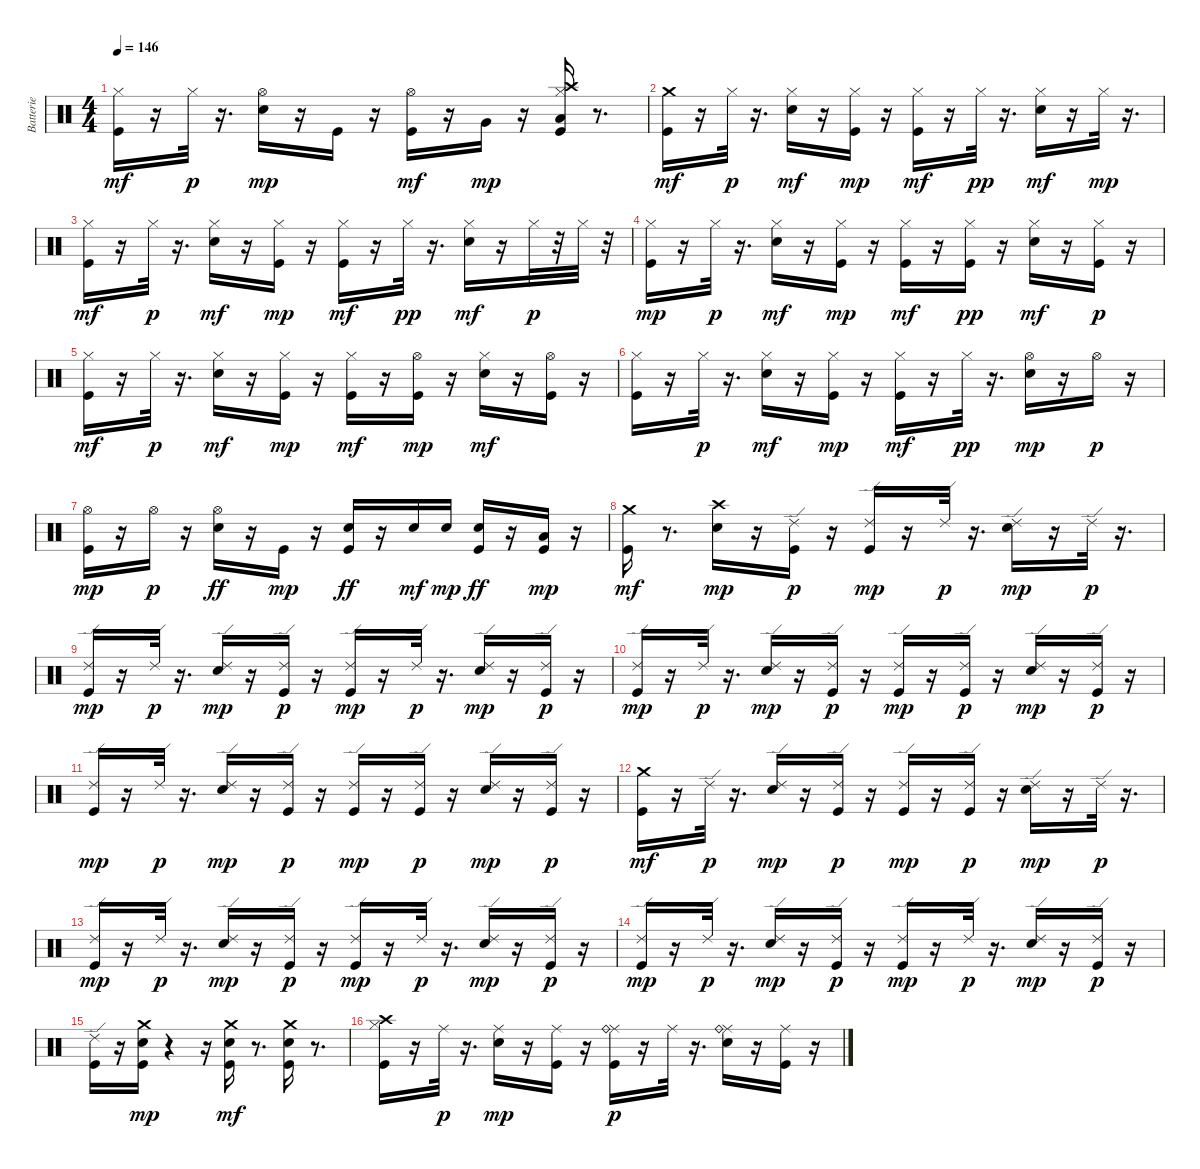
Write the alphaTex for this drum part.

\track ("Batterie" "Batterie") {instrument percussion}
\staff {score}
\articulation defaults
\ts (4 4)
\tempo 146
\clef neutral
\ks c
("Kick (hit)" "Hi-Hat (closed)").16{dy mf} r.16 "Hi-Hat (closed)".32{dy p} r.16{d} ("Electric Snare (hit)" "Hi-Hat (open)").16{dy mp} r.16 "Kick (hit)".16 r.16 ("Kick (hit)" "Hi-Hat (open)").16{dy mf} r.16 "Very Low Tom (hit)".16{dy mp} r.16 ("Kick (hit)" "Hi-Hat (closed)" "Crash high (hit)" "Low Tom (hit)").16 r.8{d} |
("Kick (hit)" "Crash medium (hit)").16{dy mf} r.16 "Hi-Hat (closed)".32{dy p} r.16{d} ("Electric Snare (hit)" "Hi-Hat (closed)").16{dy mf} r.16 ("Kick (hit)" "Hi-Hat (closed)").16{dy mp} r.16 ("Kick (hit)" "Hi-Hat (closed)").16{dy mf} r.16 "Hi-Hat (closed)".32{dy pp} r.16{d} ("Electric Snare (hit)" "Hi-Hat (closed)").16{dy mf} r.16 "Hi-Hat (closed)".32{dy mp} r.16{d} |
("Kick (hit)" "Hi-Hat (closed)").16{dy mf} r.16 "Hi-Hat (closed)".32{dy p} r.16{d} ("Electric Snare (hit)" "Hi-Hat (closed)").16{dy mf} r.16 ("Kick (hit)" "Hi-Hat (closed)").16{dy mp} r.16 ("Kick (hit)" "Hi-Hat (closed)").16{dy mf} r.16 "Hi-Hat (closed)".32{dy pp} r.16{d} ("Electric Snare (hit)" "Hi-Hat (closed)").16{dy mf} r.16 "Hi-Hat (closed)".32{dy p} r.32 "Hi-Hat (closed)".32 r.32 |
("Kick (hit)" "Hi-Hat (closed)").16{dy mp} r.16 "Hi-Hat (closed)".32{dy p} r.16{d} ("Electric Snare (hit)" "Hi-Hat (closed)").16{dy mf} r.16 ("Kick (hit)" "Hi-Hat (closed)").16{dy mp} r.16 ("Kick (hit)" "Hi-Hat (closed)").16{dy mf} r.16 ("Kick (hit)" "Hi-Hat (closed)").16{dy pp} r.16 ("Electric Snare (hit)" "Hi-Hat (closed)").16{dy mf} r.16 ("Kick (hit)" "Hi-Hat (closed)").16{dy p} r.16 |
("Kick (hit)" "Hi-Hat (closed)").16{dy mf} r.16 "Hi-Hat (closed)".32{dy p} r.16{d} ("Electric Snare (hit)" "Hi-Hat (closed)").16{dy mf} r.16 ("Kick (hit)" "Hi-Hat (closed)").16{dy mp} r.16 ("Kick (hit)" "Hi-Hat (closed)").16{dy mf} r.16 ("Kick (hit)" "Hi-Hat (open)").16{dy mp} r.16 ("Electric Snare (hit)" "Hi-Hat (closed)").16{dy mf} r.16 ("Kick (hit)" "Hi-Hat (open)").16 r.16 |
("Kick (hit)" "Hi-Hat (closed)").16 r.16 "Hi-Hat (closed)".32{dy p} r.16{d} ("Electric Snare (hit)" "Hi-Hat (closed)").16{dy mf} r.16 ("Kick (hit)" "Hi-Hat (closed)").16{dy mp} r.16 ("Kick (hit)" "Hi-Hat (closed)").16{dy mf} r.16 "Hi-Hat (closed)".32{dy pp} r.16{d} ("Electric Snare (hit)" "Hi-Hat (open)").16{dy mp} r.16 "Hi-Hat (open)".16{dy p} r.16 |
("Kick (hit)" "Hi-Hat (open)").16{dy mp} r.16 "Hi-Hat (open)".16{dy p} r.16 ("Electric Snare (hit)" "Hi-Hat (open)").16{dy ff} r.16 "Kick (hit)".16{dy mp} r.16 ("Kick (hit)" "Electric Snare (hit)").16{dy ff} r.16 "Electric Snare (hit)".16{dy mf} "Electric Snare (hit)".16{dy mp} ("Kick (hit)" "Electric Snare (hit)").16{dy ff} r.16 ("Kick (hit)" "Low Tom (hit)").16{dy mp} r.16 |
("Kick (hit)" "Crash medium (hit)").16{dy mf} r.8{d} ("Electric Snare (hit)" "Crash high (hit)").16{dy mp} r.16 ("Kick (hit)" "Ride (edge) 2").16{dy p} r.16 ("Kick (hit)" "Ride (edge) 2").16{dy mp} r.16 "Ride (edge) 2".32{dy p} r.16{d} ("Electric Snare (hit)" "Ride (edge) 2").16{dy mp} r.16 "Ride (edge) 2".32{dy p} r.16{d} |
("Kick (hit)" "Ride (edge) 2").16{dy mp} r.16 "Ride (edge) 2".32{dy p} r.16{d} ("Electric Snare (hit)" "Ride (edge) 2").16{dy mp} r.16 ("Kick (hit)" "Ride (edge) 2").16{dy p} r.16 ("Kick (hit)" "Ride (edge) 2").16{dy mp} r.16 "Ride (edge) 2".32{dy p} r.16{d} ("Electric Snare (hit)" "Ride (edge) 2").16{dy mp} r.16 ("Kick (hit)" "Ride (edge) 2").16{dy p} r.16 |
("Kick (hit)" "Ride (edge) 2").16{dy mp} r.16 "Ride (edge) 2".32{dy p} r.16{d} ("Electric Snare (hit)" "Ride (edge) 2").16{dy mp} r.16 ("Kick (hit)" "Ride (edge) 2").16{dy p} r.16 ("Kick (hit)" "Ride (edge) 2").16{dy mp} r.16 ("Kick (hit)" "Ride (edge) 2").16{dy p} r.16 ("Electric Snare (hit)" "Ride (edge) 2").16{dy mp} r.16 ("Kick (hit)" "Ride (edge) 2").16{dy p} r.16 |
("Kick (hit)" "Ride (edge) 2").16{dy mp} r.16 "Ride (edge) 2".32{dy p} r.16{d} ("Electric Snare (hit)" "Ride (edge) 2").16{dy mp} r.16 ("Kick (hit)" "Ride (edge) 2").16{dy p} r.16 ("Kick (hit)" "Ride (edge) 2").16{dy mp} r.16 ("Kick (hit)" "Ride (edge) 2").16{dy p} r.16 ("Electric Snare (hit)" "Ride (edge) 2").16{dy mp} r.16 ("Kick (hit)" "Ride (edge) 2").16{dy p} r.16 |
("Kick (hit)" "Crash medium (hit)").16{dy mf} r.16 "Ride (edge) 2".32{dy p} r.16{d} ("Electric Snare (hit)" "Ride (edge) 2").16{dy mp} r.16 ("Kick (hit)" "Ride (edge) 2").16{dy p} r.16 ("Kick (hit)" "Ride (edge) 2").16{dy mp} r.16 ("Kick (hit)" "Ride (edge) 2").16{dy p} r.16 ("Electric Snare (hit)" "Ride (edge) 2").16{dy mp} r.16 "Ride (edge) 2".32{dy p} r.16{d} |
("Kick (hit)" "Ride (edge) 2").16{dy mp} r.16 "Ride (edge) 2".32{dy p} r.16{d} ("Electric Snare (hit)" "Ride (edge) 2").16{dy mp} r.16 ("Kick (hit)" "Ride (edge) 2").16{dy p} r.16 ("Kick (hit)" "Ride (edge) 2").16{dy mp} r.16 "Ride (edge) 2".32{dy p} r.16{d} ("Electric Snare (hit)" "Ride (edge) 2").16{dy mp} r.16 ("Kick (hit)" "Ride (edge) 2").16{dy p} r.16 |
("Kick (hit)" "Ride (edge) 2").16{dy mp} r.16 "Ride (edge) 2".32{dy p} r.16{d} ("Electric Snare (hit)" "Ride (edge) 2").16{dy mp} r.16 ("Kick (hit)" "Ride (edge) 2").16{dy p} r.16 ("Kick (hit)" "Ride (edge) 2").16{dy mp} r.16 "Ride (edge) 2".32{dy p} r.16{d} ("Electric Snare (hit)" "Ride (edge) 2").16{dy mp} r.16 ("Kick (hit)" "Ride (edge) 2").16{dy p} r.16 |
("Kick (hit)" "Ride (edge) 2").16 r.16 ("Kick (hit)" "Electric Snare (hit)" "Crash medium (hit)").16{dy mp} r.4 r.16 ("Kick (hit)" "Electric Snare (hit)" "Crash medium (hit)").16{dy mf} r.8{d} ("Kick (hit)" "Electric Snare (hit)" "Crash medium (hit)").16 r.8{d} |
("Kick (hit)" "Hi-Hat (closed)" "Crash high (hit)").16 r.16 "Ride (middle)".32{dy p} r.16{d} ("Electric Snare (hit)" "Ride (middle)").16{dy mp} r.16 ("Kick (hit)" "Ride (middle)").16 r.16 ("Kick (hit)" "Ride (middle)" "Ride (bell)").16{dy p} r.16 "Ride (middle)".32 r.16{d} ("Electric Snare (hit)" "Ride (middle)" "Ride (bell)").16 r.16 ("Kick (hit)" "Ride (middle)").16 r.16
